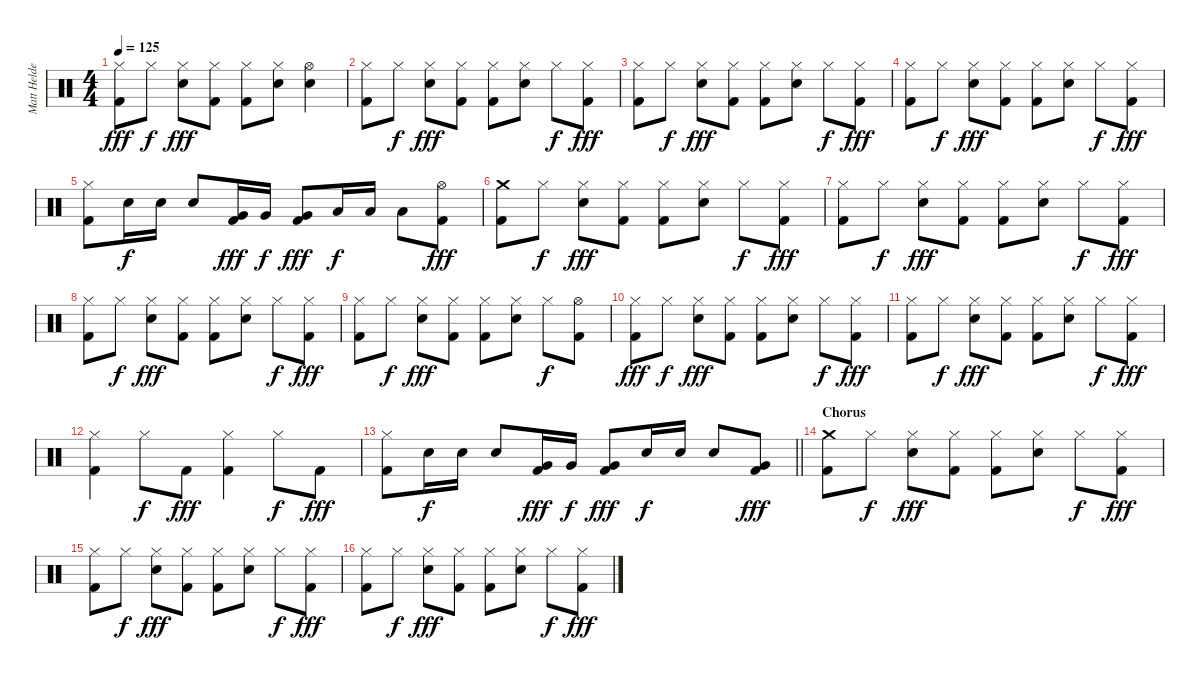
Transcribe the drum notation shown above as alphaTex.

\track ("Matt Helders" "Matt Helde") {instrument percussion}
\staff {score}
\articulation defaults
\ts (4 4)
\tempo 125
\clef neutral
\ks c
("Hi-Hat (closed)" "Kick (hit) 2").8{dy fff} "Hi-Hat (closed)".8{dy f} ("Hi-Hat (closed)" "Electric Snare (hit)").8{dy fff} ("Hi-Hat (closed)" "Kick (hit) 2").8 ("Hi-Hat (closed)" "Kick (hit) 2").8 ("Hi-Hat (closed)" "Electric Snare (hit)").8 ("Hi-Hat (open)" "Electric Snare (hit)").4 |
("Hi-Hat (closed)" "Kick (hit) 2").8 "Hi-Hat (closed)".8{dy f} ("Hi-Hat (closed)" "Electric Snare (hit)").8{dy fff} ("Hi-Hat (closed)" "Kick (hit) 2").8 ("Hi-Hat (closed)" "Kick (hit) 2").8 ("Hi-Hat (closed)" "Electric Snare (hit)").8 "Hi-Hat (closed)".8{dy f} ("Hi-Hat (closed)" "Kick (hit) 2").8{dy fff} |
("Hi-Hat (closed)" "Kick (hit) 2").8 "Hi-Hat (closed)".8{dy f} ("Hi-Hat (closed)" "Electric Snare (hit)").8{dy fff} ("Hi-Hat (closed)" "Kick (hit) 2").8 ("Hi-Hat (closed)" "Kick (hit) 2").8 ("Hi-Hat (closed)" "Electric Snare (hit)").8 "Hi-Hat (closed)".8{dy f} ("Hi-Hat (closed)" "Kick (hit) 2").8{dy fff} |
("Hi-Hat (closed)" "Kick (hit) 2").8 "Hi-Hat (closed)".8{dy f} ("Hi-Hat (closed)" "Electric Snare (hit)").8{dy fff} ("Hi-Hat (closed)" "Kick (hit) 2").8 ("Hi-Hat (closed)" "Kick (hit) 2").8 ("Hi-Hat (closed)" "Electric Snare (hit)").8 "Hi-Hat (closed)".8{dy f} ("Hi-Hat (closed)" "Kick (hit) 2").8{dy fff} |
("Hi-Hat (closed)" "Kick (hit) 2").8 "Electric Snare (hit)".16{dy f} "Electric Snare (hit)".16 "Electric Snare (hit)".8 ("Very Low Tom (hit)" "Kick (hit) 2").16{dy fff} "Very Low Tom (hit)".16{dy f} ("Very Low Tom (hit)" "Kick (hit) 2").8{dy fff} "Low Floor Tom (hit)".16{dy f} "Low Floor Tom (hit)".16 "Low Floor Tom (hit)".8 ("Hi-Hat (open)" "Kick (hit) 2").8{dy fff} |
("Crash medium (hit)" "Kick (hit) 2").8 "Hi-Hat (closed)".8{dy f} ("Hi-Hat (closed)" "Electric Snare (hit)").8{dy fff} ("Hi-Hat (closed)" "Kick (hit) 2").8 ("Hi-Hat (closed)" "Kick (hit) 2").8 ("Hi-Hat (closed)" "Electric Snare (hit)").8 "Hi-Hat (closed)".8{dy f} ("Hi-Hat (closed)" "Kick (hit) 2").8{dy fff} |
("Hi-Hat (closed)" "Kick (hit) 2").8 "Hi-Hat (closed)".8{dy f} ("Hi-Hat (closed)" "Electric Snare (hit)").8{dy fff} ("Hi-Hat (closed)" "Kick (hit) 2").8 ("Hi-Hat (closed)" "Kick (hit) 2").8 ("Hi-Hat (closed)" "Electric Snare (hit)").8 "Hi-Hat (closed)".8{dy f} ("Hi-Hat (closed)" "Kick (hit) 2").8{dy fff} |
("Hi-Hat (closed)" "Kick (hit) 2").8 "Hi-Hat (closed)".8{dy f} ("Hi-Hat (closed)" "Electric Snare (hit)").8{dy fff} ("Hi-Hat (closed)" "Kick (hit) 2").8 ("Hi-Hat (closed)" "Kick (hit) 2").8 ("Hi-Hat (closed)" "Electric Snare (hit)").8 "Hi-Hat (closed)".8{dy f} ("Hi-Hat (closed)" "Kick (hit) 2").8{dy fff} |
("Hi-Hat (closed)" "Kick (hit) 2").8 "Hi-Hat (closed)".8{dy f} ("Hi-Hat (closed)" "Electric Snare (hit)").8{dy fff} ("Hi-Hat (closed)" "Kick (hit) 2").8 ("Hi-Hat (closed)" "Kick (hit) 2").8 ("Hi-Hat (closed)" "Electric Snare (hit)").8 "Hi-Hat (closed)".8{dy f} ("Hi-Hat (open)" "Kick (hit) 2").8 |
("Hi-Hat (closed)" "Kick (hit) 2").8{dy fff} "Hi-Hat (closed)".8{dy f} ("Hi-Hat (closed)" "Electric Snare (hit)").8{dy fff} ("Hi-Hat (closed)" "Kick (hit) 2").8 ("Hi-Hat (closed)" "Kick (hit) 2").8 ("Hi-Hat (closed)" "Electric Snare (hit)").8 "Hi-Hat (closed)".8{dy f} ("Hi-Hat (closed)" "Kick (hit) 2").8{dy fff} |
("Hi-Hat (closed)" "Kick (hit) 2").8 "Hi-Hat (closed)".8{dy f} ("Hi-Hat (closed)" "Electric Snare (hit)").8{dy fff} ("Hi-Hat (closed)" "Kick (hit) 2").8 ("Hi-Hat (closed)" "Kick (hit) 2").8 ("Hi-Hat (closed)" "Electric Snare (hit)").8 "Hi-Hat (closed)".8{dy f} ("Hi-Hat (closed)" "Kick (hit) 2").8{dy fff} |
("Hi-Hat (closed)" "Kick (hit) 2").4 "Hi-Hat (closed)".8{dy f} "Kick (hit) 2".8{dy fff} ("Hi-Hat (closed)" "Kick (hit) 2").4 "Hi-Hat (closed)".8{dy f} "Kick (hit) 2".8{dy fff} |
\barLineRight lightlight
("Hi-Hat (closed)" "Kick (hit) 2").8 "Electric Snare (hit)".16{dy f} "Electric Snare (hit)".16 "Electric Snare (hit)".8 ("Very Low Tom (hit)" "Kick (hit) 2").16{dy fff} "Very Low Tom (hit)".16{dy f} ("Very Low Tom (hit)" "Kick (hit) 2").8{dy fff} "Electric Snare (hit)".16{dy f} "Electric Snare (hit)".16 "Electric Snare (hit)".8 ("Very Low Tom (hit)" "Kick (hit) 2").8{dy fff} |
\section ("" "Chorus")
("Crash medium (hit)" "Kick (hit) 2").8 "Hi-Hat (closed)".8{dy f} ("Hi-Hat (closed)" "Electric Snare (hit)").8{dy fff} ("Hi-Hat (closed)" "Kick (hit) 2").8 ("Hi-Hat (closed)" "Kick (hit) 2").8 ("Hi-Hat (closed)" "Electric Snare (hit)").8 "Hi-Hat (closed)".8{dy f} ("Hi-Hat (closed)" "Kick (hit) 2").8{dy fff} |
("Hi-Hat (closed)" "Kick (hit) 2").8 "Hi-Hat (closed)".8{dy f} ("Hi-Hat (closed)" "Electric Snare (hit)").8{dy fff} ("Hi-Hat (closed)" "Kick (hit) 2").8 ("Hi-Hat (closed)" "Kick (hit) 2").8 ("Hi-Hat (closed)" "Electric Snare (hit)").8 "Hi-Hat (closed)".8{dy f} ("Hi-Hat (closed)" "Kick (hit) 2").8{dy fff} |
("Hi-Hat (closed)" "Kick (hit) 2").8 "Hi-Hat (closed)".8{dy f} ("Hi-Hat (closed)" "Electric Snare (hit)").8{dy fff} ("Hi-Hat (closed)" "Kick (hit) 2").8 ("Hi-Hat (closed)" "Kick (hit) 2").8 ("Hi-Hat (closed)" "Electric Snare (hit)").8 "Hi-Hat (closed)".8{dy f} ("Hi-Hat (closed)" "Kick (hit) 2").8{dy fff}
